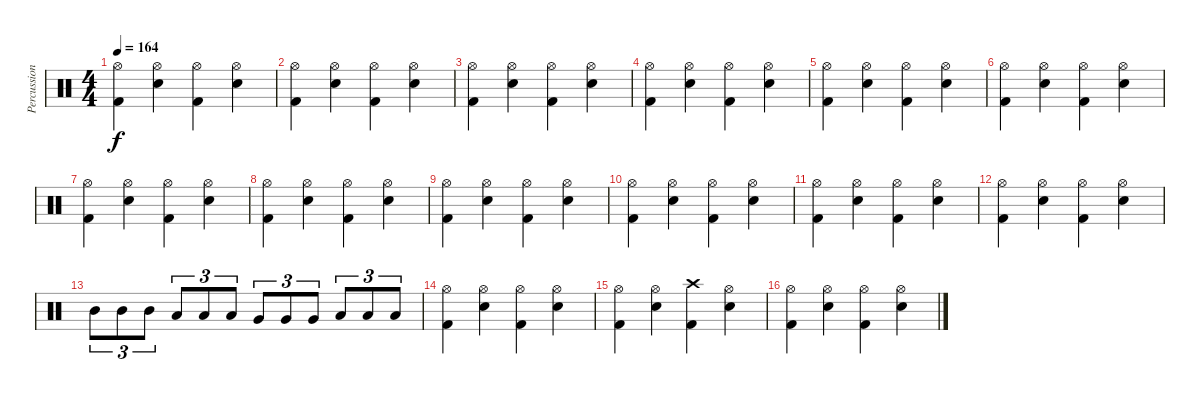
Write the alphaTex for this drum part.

\track ("Percussions" "Percussion") {instrument percussion}
\staff {score}
\articulation defaults
\ts (4 4)
\tempo 164
\clef neutral
\ks c
("Hi-Hat (open)" "Kick (hit) 2").4{dy f} ("Hi-Hat (open)" "Snare (hit) 2").4 ("Hi-Hat (open)" "Kick (hit) 2").4 ("Hi-Hat (open)" "Snare (hit) 2").4 |
("Hi-Hat (open)" "Kick (hit) 2").4 ("Hi-Hat (open)" "Snare (hit) 2").4 ("Hi-Hat (open)" "Kick (hit) 2").4 ("Hi-Hat (open)" "Snare (hit) 2").4 |
("Hi-Hat (open)" "Kick (hit) 2").4 ("Hi-Hat (open)" "Snare (hit) 2").4 ("Hi-Hat (open)" "Kick (hit) 2").4 ("Hi-Hat (open)" "Snare (hit) 2").4 |
("Hi-Hat (open)" "Kick (hit) 2").4 ("Hi-Hat (open)" "Snare (hit) 2").4 ("Hi-Hat (open)" "Kick (hit) 2").4 ("Hi-Hat (open)" "Snare (hit) 2").4 |
("Hi-Hat (open)" "Kick (hit) 2").4 ("Hi-Hat (open)" "Snare (hit) 2").4 ("Hi-Hat (open)" "Kick (hit) 2").4 ("Hi-Hat (open)" "Snare (hit) 2").4 |
("Hi-Hat (open)" "Kick (hit) 2").4 ("Hi-Hat (open)" "Snare (hit) 2").4 ("Hi-Hat (open)" "Kick (hit) 2").4 ("Hi-Hat (open)" "Snare (hit) 2").4 |
("Hi-Hat (open)" "Kick (hit) 2").4 ("Hi-Hat (open)" "Snare (hit) 2").4 ("Hi-Hat (open)" "Kick (hit) 2").4 ("Hi-Hat (open)" "Snare (hit) 2").4 |
("Hi-Hat (open)" "Kick (hit) 2").4 ("Hi-Hat (open)" "Snare (hit) 2").4 ("Hi-Hat (open)" "Kick (hit) 2").4 ("Hi-Hat (open)" "Snare (hit) 2").4 |
("Hi-Hat (open)" "Kick (hit) 2").4 ("Hi-Hat (open)" "Snare (hit) 2").4 ("Hi-Hat (open)" "Kick (hit) 2").4 ("Hi-Hat (open)" "Snare (hit) 2").4 |
("Hi-Hat (open)" "Kick (hit) 2").4 ("Hi-Hat (open)" "Snare (hit) 2").4 ("Hi-Hat (open)" "Kick (hit) 2").4 ("Hi-Hat (open)" "Snare (hit) 2").4 |
("Hi-Hat (open)" "Kick (hit) 2").4 ("Hi-Hat (open)" "Snare (hit) 2").4 ("Hi-Hat (open)" "Kick (hit) 2").4 ("Hi-Hat (open)" "Snare (hit) 2").4 |
("Hi-Hat (open)" "Kick (hit) 2").4 ("Hi-Hat (open)" "Snare (hit) 2").4 ("Hi-Hat (open)" "Kick (hit) 2").4 ("Hi-Hat (open)" "Snare (hit) 2").4 |
"Mid Tom (hit)".8{tu (3 2)} "Mid Tom (hit)".8{tu (3 2)} "Mid Tom (hit)".8{tu (3 2)} "Low Tom (hit)".8{tu (3 2)} "Low Tom (hit)".8{tu (3 2)} "Low Tom (hit)".8{tu (3 2)} "Very Low Tom (hit)".8{tu (3 2)} "Very Low Tom (hit)".8{tu (3 2)} "Very Low Tom (hit)".8{tu (3 2)} "Low Floor Tom (hit)".8{tu (3 2)} "Low Floor Tom (hit)".8{tu (3 2)} "Low Floor Tom (hit)".8{tu (3 2)} |
("Hi-Hat (open)" "Kick (hit) 2").4 ("Hi-Hat (open)" "Snare (hit) 2").4 ("Hi-Hat (open)" "Kick (hit) 2").4 ("Hi-Hat (open)" "Snare (hit) 2").4 |
("Hi-Hat (open)" "Kick (hit) 2").4 ("Hi-Hat (open)" "Snare (hit) 2").4 ("Crash high (hit)" "Kick (hit) 2").4 ("Hi-Hat (open)" "Snare (hit) 2").4 |
("Hi-Hat (open)" "Kick (hit) 2").4 ("Hi-Hat (open)" "Snare (hit) 2").4 ("Hi-Hat (open)" "Kick (hit) 2").4 ("Hi-Hat (open)" "Snare (hit) 2").4
